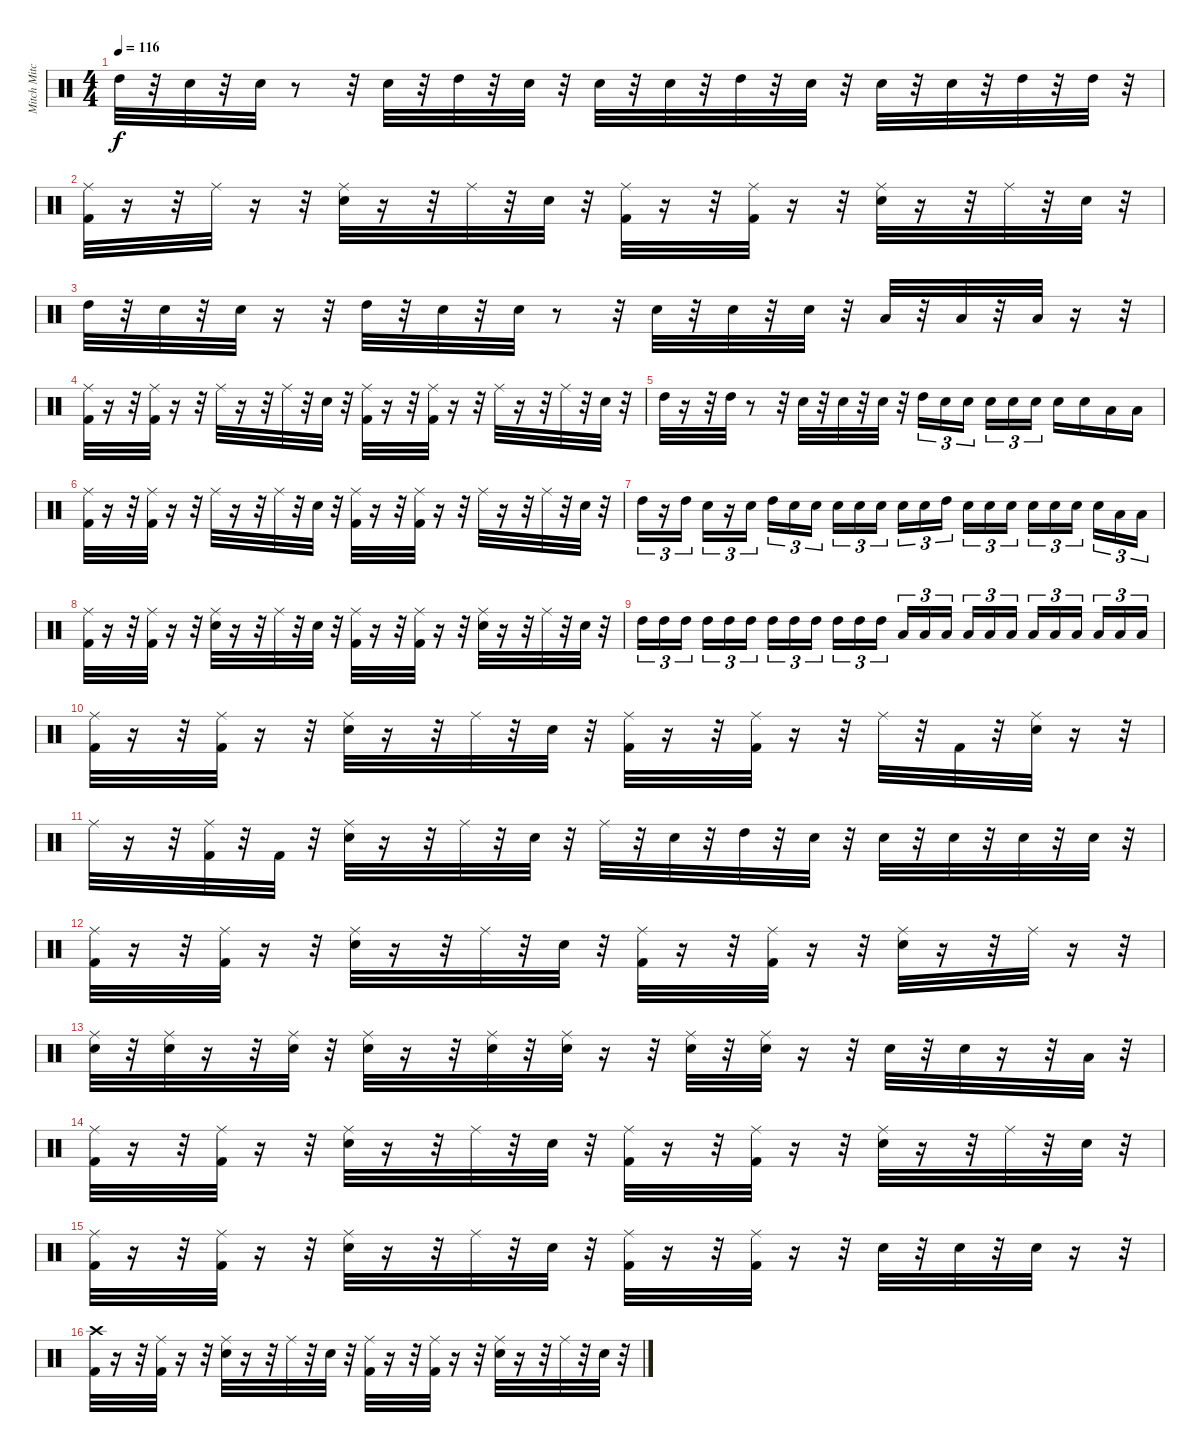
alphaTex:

\track ("Mitch Mitchell" "Mitch Mitc") {instrument percussion}
\staff {score}
\articulation defaults
\ts (4 4)
\tempo 116
\clef neutral
\ks c "High Tom (hit)".32{dy f}
r.32 "Snare (hit) 2".32 r.32 "Snare (hit) 2".32 r.8 r.32 "Snare (hit) 2".32 r.32 "High Tom (hit)".32 r.32 "Snare (hit) 2".32 r.32 "Snare (hit) 2".32 r.32 "Snare (hit) 2".32 r.32 "High Tom (hit)".32 r.32 "Snare (hit) 2".32 r.32 "Snare (hit) 2".32 r.32 "Snare (hit) 2".32 r.32 "High Tom (hit)".32 r.32 "High Tom (hit)".32 r.32 |
("Kick (hit) 2" "Ride (middle)").32 r.16 r.32 "Ride (middle)".32 r.16 r.32 ("Snare (hit) 2" "Ride (middle)").32 r.16 r.32 "Ride (middle)".32 r.32 "Snare (hit) 2".32 r.32 ("Kick (hit) 2" "Ride (middle)").32 r.16 r.32 ("Kick (hit) 2" "Ride (middle)").32 r.16 r.32 ("Snare (hit) 2" "Ride (middle)").32 r.16 r.32 "Ride (middle)".32 r.32 "Snare (hit) 2".32 r.32 |
"High Tom (hit)".32 r.32 "Snare (hit) 2".32 r.32 "Snare (hit) 2".32 r.16 r.32 "High Tom (hit)".32 r.32 "Snare (hit) 2".32 r.32 "Snare (hit) 2".32 r.8 r.32 "Snare (hit) 2".32 r.32 "Snare (hit) 2".32 r.32 "Snare (hit) 2".32 r.32 "Low Floor Tom (hit)".32 r.32 "Low Floor Tom (hit)".32 r.32 "Low Floor Tom (hit)".32 r.16 r.32 |
("Kick (hit) 2" "Ride (middle)").32 r.16 r.32 ("Kick (hit) 2" "Ride (middle)").32 r.16 r.32 "Ride (middle)".32 r.16 r.32 "Ride (middle)".32 r.32 "Snare (hit) 2".32 r.32 ("Kick (hit) 2" "Ride (middle)").32 r.16 r.32 ("Kick (hit) 2" "Ride (middle)").32 r.16 r.32 "Ride (middle)".32 r.16 r.32 "Ride (middle)".32 r.32 "Snare (hit) 2".32 r.32 |
"High Tom (hit)".32 r.16 r.32 "High Tom (hit)".32 r.8 r.32 "Snare (hit) 2".32 r.32 "Snare (hit) 2".32 r.32 "Snare (hit) 2".32 r.32 "High Tom (hit)".16{tu (3 2)} "Snare (hit) 2".16{tu (3 2)} "Snare (hit) 2".16{tu (3 2)} "Snare (hit) 2".16{tu (3 2)} "Snare (hit) 2".16{tu (3 2)} "Snare (hit) 2".16{tu (3 2)} "Snare (hit) 2".16 "Snare (hit) 2".16 "Low Floor Tom (hit)".16 "Low Floor Tom (hit)".16 |
("Kick (hit) 2" "Ride (middle)").32 r.16 r.32 ("Kick (hit) 2" "Ride (middle)").32 r.16 r.32 "Ride (middle)".32 r.16 r.32 "Ride (middle)".32 r.32 "Snare (hit) 2".32 r.32 ("Kick (hit) 2" "Ride (middle)").32 r.16 r.32 ("Kick (hit) 2" "Ride (middle)").32 r.16 r.32 "Ride (middle)".32 r.16 r.32 "Ride (middle)".32 r.32 "Snare (hit) 2".32 r.32 |
"High Tom (hit)".16{tu (3 2)} r.16{tu (3 2)} "High Tom (hit)".16{tu (3 2)} "Snare (hit) 2".16{tu (3 2)} r.16{tu (3 2)} "Snare (hit) 2".16{tu (3 2)} "High Tom (hit)".16{tu (3 2)} "Snare (hit) 2".16{tu (3 2)} "Snare (hit) 2".16{tu (3 2)} "Snare (hit) 2".16{tu (3 2)} "Snare (hit) 2".16{tu (3 2)} "Snare (hit) 2".16{tu (3 2)} "Snare (hit) 2".16{tu (3 2)} "Snare (hit) 2".16{tu (3 2)} "High Tom (hit)".16{tu (3 2)} "Snare (hit) 2".16{tu (3 2)} "Snare (hit) 2".16{tu (3 2)} "Snare (hit) 2".16{tu (3 2)} "Snare (hit) 2".16{tu (3 2)} "Snare (hit) 2".16{tu (3 2)} "Snare (hit) 2".16{tu (3 2)} "Snare (hit) 2".16{tu (3 2)} "Low Floor Tom (hit)".16{tu (3 2)} "Low Floor Tom (hit)".16{tu (3 2)} |
("Kick (hit) 2" "Ride (middle)").32 r.16 r.32 ("Kick (hit) 2" "Ride (middle)").32 r.16 r.32 ("Snare (hit) 2" "Ride (middle)").32 r.16 r.32 "Ride (middle)".32 r.32 "Snare (hit) 2".32 r.32 ("Kick (hit) 2" "Ride (middle)").32 r.16 r.32 ("Kick (hit) 2" "Ride (middle)").32 r.16 r.32 ("Snare (hit) 2" "Ride (middle)").32 r.16 r.32 "Ride (middle)".32 r.32 "Snare (hit) 2".32 r.32 |
"High Tom (hit)".16{tu (3 2)} "High Tom (hit)".16{tu (3 2)} "High Tom (hit)".16{tu (3 2)} "High Tom (hit)".16{tu (3 2)} "High Tom (hit)".16{tu (3 2)} "High Tom (hit)".16{tu (3 2)} "High Tom (hit)".16{tu (3 2)} "High Tom (hit)".16{tu (3 2)} "High Tom (hit)".16{tu (3 2)} "High Tom (hit)".16{tu (3 2)} "High Tom (hit)".16{tu (3 2)} "High Tom (hit)".16{tu (3 2)} "Low Tom (hit)".16{tu (3 2)} "Low Tom (hit)".16{tu (3 2)} "Low Tom (hit)".16{tu (3 2)} "Low Tom (hit)".16{tu (3 2)} "Low Tom (hit)".16{tu (3 2)} "Low Tom (hit)".16{tu (3 2)} "Low Floor Tom (hit)".16{tu (3 2)} "Low Floor Tom (hit)".16{tu (3 2)} "Low Floor Tom (hit)".16{tu (3 2)} "Low Floor Tom (hit)".16{tu (3 2)} "Low Floor Tom (hit)".16{tu (3 2)} "Low Floor Tom (hit)".16{tu (3 2)} |
("Kick (hit) 2" "Ride (middle)").32 r.16 r.32 ("Kick (hit) 2" "Ride (middle)").32 r.16 r.32 ("Snare (hit) 2" "Ride (middle)").32 r.16 r.32 "Ride (middle)".32 r.32 "Snare (hit) 2".32 r.32 ("Kick (hit) 2" "Ride (middle)").32 r.16 r.32 ("Kick (hit) 2" "Ride (middle)").32 r.16 r.32 "Ride (middle)".32 r.32 "Kick (hit) 2".32 r.32 ("Snare (hit) 2" "Ride (middle)").32 r.16 r.32 |
"Ride (middle)".32 r.16 r.32 ("Kick (hit) 2" "Ride (middle)").32 r.32 "Kick (hit) 2".32 r.32 ("Snare (hit) 2" "Ride (middle)").32 r.16 r.32 "Ride (middle)".32 r.32 "Snare (hit) 2".32 r.32 "Ride (middle)".32 r.32 "Snare (hit) 2".32 r.32 "High Tom (hit)".32 r.32 "Snare (hit) 2".32 r.32 "Snare (hit) 2".32 r.32 "Snare (hit) 2".32 r.32 "Snare (hit) 2".32 r.32 "Snare (hit) 2".32 r.32 |
("Kick (hit) 2" "Ride (middle)").32 r.16 r.32 ("Kick (hit) 2" "Ride (middle)").32 r.16 r.32 ("Snare (hit) 2" "Ride (middle)").32 r.16 r.32 "Ride (middle)".32 r.32 "Snare (hit) 2".32 r.32 ("Kick (hit) 2" "Ride (middle)").32 r.16 r.32 ("Kick (hit) 2" "Ride (middle)").32 r.16 r.32 ("Snare (hit) 2" "Ride (middle)").32 r.16 r.32 "Ride (middle)".32 r.16 r.32 |
("Ride (middle)" "Snare (hit) 2").32 r.32 ("Ride (middle)" "Snare (hit) 2").32 r.16 r.32 ("Ride (middle)" "Snare (hit) 2").32 r.32 ("Ride (middle)" "Snare (hit) 2").32 r.16 r.32 ("Ride (middle)" "Snare (hit) 2").32 r.32 ("Ride (middle)" "Snare (hit) 2").32 r.16 r.32 ("Ride (middle)" "Snare (hit) 2").32 r.32 ("Ride (middle)" "Snare (hit) 2").32 r.16 r.32 "Snare (hit) 2".32 r.32 "Snare (hit) 2".32 r.16 r.32 "Low Floor Tom (hit)".32 r.32 |
("Kick (hit) 2" "Ride (middle)").32 r.16 r.32 ("Kick (hit) 2" "Ride (middle)").32 r.16 r.32 ("Snare (hit) 2" "Ride (middle)").32 r.16 r.32 "Ride (middle)".32 r.32 "Snare (hit) 2".32 r.32 ("Kick (hit) 2" "Ride (middle)").32 r.16 r.32 ("Kick (hit) 2" "Ride (middle)").32 r.16 r.32 ("Snare (hit) 2" "Ride (middle)").32 r.16 r.32 "Ride (middle)".32 r.32 "Snare (hit) 2".32 r.32 |
("Ride (middle)" "Kick (hit) 2").32 r.16 r.32 ("Ride (middle)" "Kick (hit) 2").32 r.16 r.32 ("Ride (middle)" "Snare (hit) 2").32 r.16 r.32 "Ride (middle)".32 r.32 "Snare (hit) 2".32 r.32 ("Ride (middle)" "Kick (hit) 2").32 r.16 r.32 ("Ride (middle)" "Kick (hit) 2").32 r.16 r.32 "Snare (hit) 2".32 r.32 "Snare (hit) 2".32 r.32 "Snare (hit) 2".32 r.16 r.32 |
("Kick (hit) 2" "Crash high (hit)").32 r.16 r.32 ("Kick (hit) 2" "Ride (middle)").32 r.16 r.32 ("Snare (hit) 2" "Ride (middle)").32 r.16 r.32 "Ride (middle)".32 r.32 "Snare (hit) 2".32 r.32 ("Kick (hit) 2" "Ride (middle)").32 r.16 r.32 ("Kick (hit) 2" "Ride (middle)").32 r.16 r.32 ("Snare (hit) 2" "Ride (middle)").32 r.16 r.32 "Ride (middle)".32 r.32 "Snare (hit) 2".32 r.32
